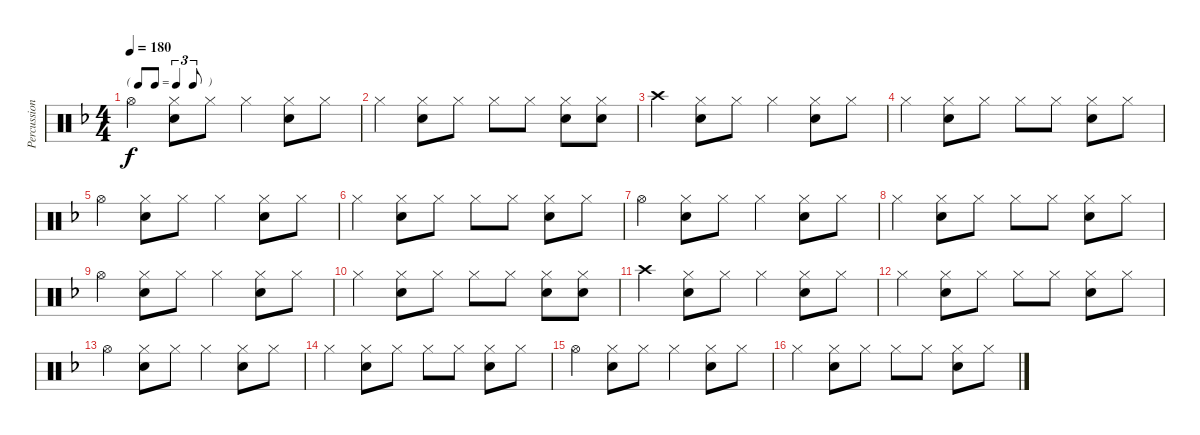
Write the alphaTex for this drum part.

\track ("Percussion" "Percussion") {instrument percussion}
\staff {score}
\articulation defaults
\ts (4 4)
\tf triplet8th
\tempo 180
\clef neutral
\ks f "Hi-Hat (open)".4{dy f}
("Hi-Hat (closed)" "Snare (hit) 2").8 "Hi-Hat (closed)".8 "Hi-Hat (closed)".4 ("Hi-Hat (closed)" "Snare (hit) 2").8 "Hi-Hat (closed)".8 |
"Hi-Hat (closed)".4 ("Hi-Hat (closed)" "Snare (hit) 2").8 "Hi-Hat (closed)".8 "Hi-Hat (closed)".8 "Hi-Hat (closed)".8 ("Hi-Hat (closed)" "Snare (hit) 2").8 ("Hi-Hat (closed)" "Snare (hit) 2").8 |
"Crash high (hit)".4 ("Hi-Hat (closed)" "Snare (hit) 2").8 "Hi-Hat (closed)".8 "Hi-Hat (closed)".4 ("Hi-Hat (closed)" "Snare (hit) 2").8 "Hi-Hat (closed)".8 |
"Hi-Hat (closed)".4 ("Hi-Hat (closed)" "Snare (hit) 2").8 "Hi-Hat (closed)".8 "Hi-Hat (closed)".8 "Hi-Hat (closed)".8 ("Hi-Hat (closed)" "Snare (hit) 2").8 "Hi-Hat (closed)".8 |
"Hi-Hat (open)".4 ("Hi-Hat (closed)" "Snare (hit) 2").8 "Hi-Hat (closed)".8 "Hi-Hat (closed)".4 ("Hi-Hat (closed)" "Snare (hit) 2").8 "Hi-Hat (closed)".8 |
"Hi-Hat (closed)".4 ("Hi-Hat (closed)" "Snare (hit) 2").8 "Hi-Hat (closed)".8 "Hi-Hat (closed)".8 "Hi-Hat (closed)".8 ("Hi-Hat (closed)" "Snare (hit) 2").8 "Hi-Hat (closed)".8 |
"Hi-Hat (open)".4 ("Hi-Hat (closed)" "Snare (hit) 2").8 "Hi-Hat (closed)".8 "Hi-Hat (closed)".4 ("Hi-Hat (closed)" "Snare (hit) 2").8 "Hi-Hat (closed)".8 |
"Hi-Hat (closed)".4 ("Hi-Hat (closed)" "Snare (hit) 2").8 "Hi-Hat (closed)".8 "Hi-Hat (closed)".8 "Hi-Hat (closed)".8 ("Hi-Hat (closed)" "Snare (hit) 2").8 "Hi-Hat (closed)".8 |
"Hi-Hat (open)".4 ("Hi-Hat (closed)" "Snare (hit) 2").8 "Hi-Hat (closed)".8 "Hi-Hat (closed)".4 ("Hi-Hat (closed)" "Snare (hit) 2").8 "Hi-Hat (closed)".8 |
"Hi-Hat (closed)".4 ("Hi-Hat (closed)" "Snare (hit) 2").8 "Hi-Hat (closed)".8 "Hi-Hat (closed)".8 "Hi-Hat (closed)".8 ("Hi-Hat (closed)" "Snare (hit) 2").8 ("Hi-Hat (closed)" "Snare (hit) 2").8 |
"Crash high (hit)".4 ("Hi-Hat (closed)" "Snare (hit) 2").8 "Hi-Hat (closed)".8 "Hi-Hat (closed)".4 ("Hi-Hat (closed)" "Snare (hit) 2").8 "Hi-Hat (closed)".8 |
"Hi-Hat (closed)".4 ("Hi-Hat (closed)" "Snare (hit) 2").8 "Hi-Hat (closed)".8 "Hi-Hat (closed)".8 "Hi-Hat (closed)".8 ("Hi-Hat (closed)" "Snare (hit) 2").8 "Hi-Hat (closed)".8 |
"Hi-Hat (open)".4 ("Hi-Hat (closed)" "Snare (hit) 2").8 "Hi-Hat (closed)".8 "Hi-Hat (closed)".4 ("Hi-Hat (closed)" "Snare (hit) 2").8 "Hi-Hat (closed)".8 |
"Hi-Hat (closed)".4 ("Hi-Hat (closed)" "Snare (hit) 2").8 "Hi-Hat (closed)".8 "Hi-Hat (closed)".8 "Hi-Hat (closed)".8 ("Hi-Hat (closed)" "Snare (hit) 2").8 "Hi-Hat (closed)".8 |
"Hi-Hat (open)".4 ("Hi-Hat (closed)" "Snare (hit) 2").8 "Hi-Hat (closed)".8 "Hi-Hat (closed)".4 ("Hi-Hat (closed)" "Snare (hit) 2").8 "Hi-Hat (closed)".8 |
"Hi-Hat (closed)".4 ("Hi-Hat (closed)" "Snare (hit) 2").8 "Hi-Hat (closed)".8 "Hi-Hat (closed)".8 "Hi-Hat (closed)".8 ("Hi-Hat (closed)" "Snare (hit) 2").8 "Hi-Hat (closed)".8
